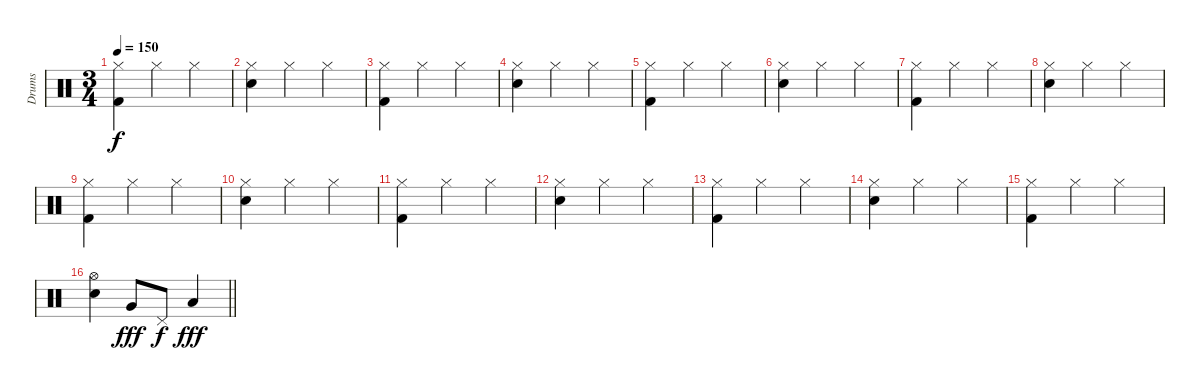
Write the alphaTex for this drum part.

\track ("Drums" "Drums") {instrument percussion}
\staff {score}
\articulation defaults
\ts (3 4)
\tempo 150
\clef neutral
\ks c
("Hi-Hat (closed)" "Kick (hit) 2").4{dy f} "Hi-Hat (closed)".4 "Hi-Hat (closed)".4 |
("Hi-Hat (closed)" "Electric Snare (hit)").4 "Hi-Hat (closed)".4 "Hi-Hat (closed)".4 |
("Hi-Hat (closed)" "Kick (hit) 2").4 "Hi-Hat (closed)".4 "Hi-Hat (closed)".4 |
("Hi-Hat (closed)" "Electric Snare (hit)").4 "Hi-Hat (closed)".4 "Hi-Hat (closed)".4 |
("Hi-Hat (closed)" "Kick (hit) 2").4 "Hi-Hat (closed)".4 "Hi-Hat (closed)".4 |
("Hi-Hat (closed)" "Electric Snare (hit)").4 "Hi-Hat (closed)".4 "Hi-Hat (closed)".4 |
("Hi-Hat (closed)" "Kick (hit) 2").4 "Hi-Hat (closed)".4 "Hi-Hat (closed)".4 |
("Hi-Hat (closed)" "Electric Snare (hit)").4 "Hi-Hat (closed)".4 "Hi-Hat (closed)".4 |
("Hi-Hat (closed)" "Kick (hit) 2").4 "Hi-Hat (closed)".4 "Hi-Hat (closed)".4 |
("Hi-Hat (closed)" "Electric Snare (hit)").4 "Hi-Hat (closed)".4 "Hi-Hat (closed)".4 |
("Hi-Hat (closed)" "Kick (hit) 2").4 "Hi-Hat (closed)".4 "Hi-Hat (closed)".4 |
("Hi-Hat (closed)" "Electric Snare (hit)").4 "Hi-Hat (closed)".4 "Hi-Hat (closed)".4 |
("Hi-Hat (closed)" "Kick (hit) 2").4 "Hi-Hat (closed)".4 "Hi-Hat (closed)".4 |
("Hi-Hat (closed)" "Electric Snare (hit)").4 "Hi-Hat (closed)".4 "Hi-Hat (closed)".4 |
("Hi-Hat (closed)" "Kick (hit) 2").4 "Hi-Hat (closed)".4 "Hi-Hat (closed)".4 |
\barLineRight lightlight
("Hi-Hat (open)" "Electric Snare (hit)").4 "Very Low Tom (hit)".8{dy fff} "Pedal Hi-Hat (hit)".8{dy f} "Low Floor Tom (hit)".4{dy fff}
